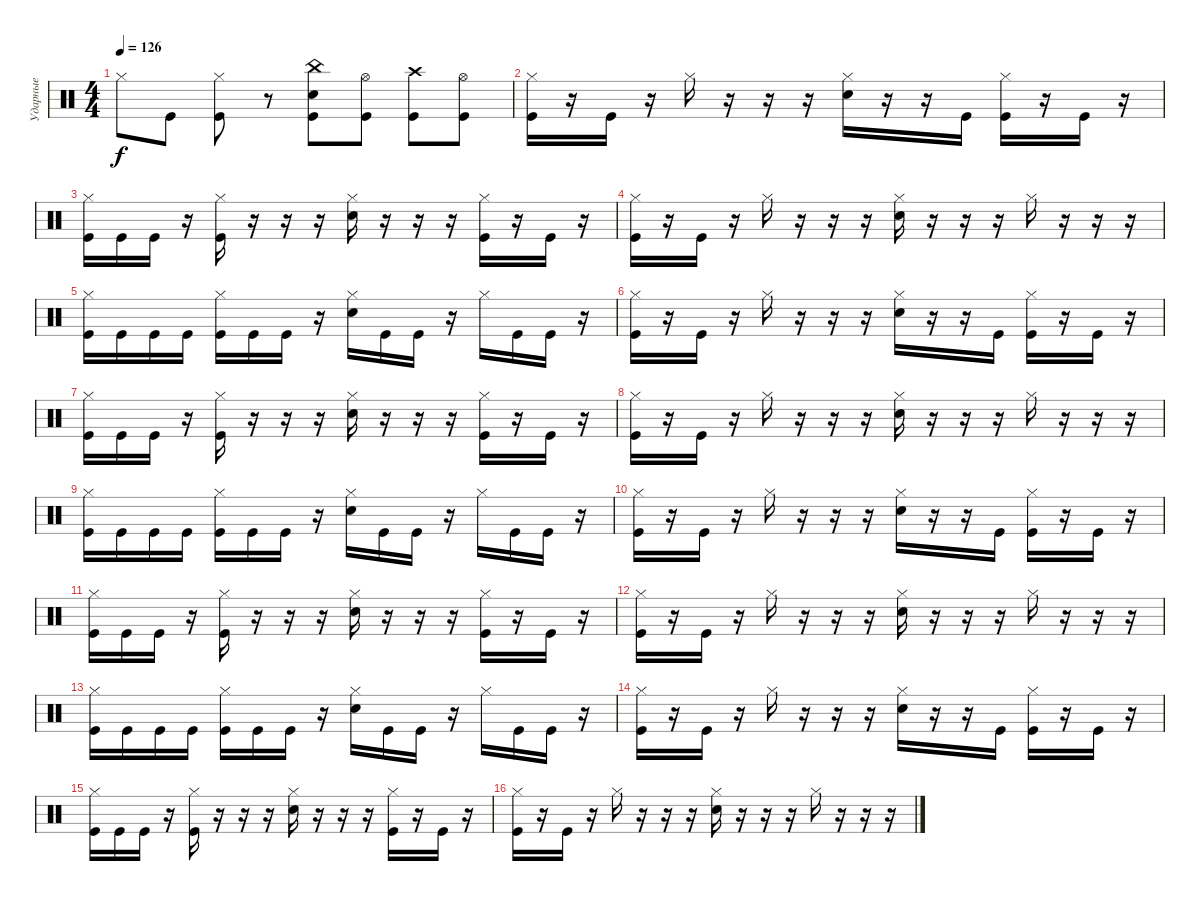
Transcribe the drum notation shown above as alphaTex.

\track ("Ударные" "Ударные") {instrument percussion}
\staff {score}
\articulation defaults
\ts (4 4)
\tempo 126
\clef neutral
\ks c "Hi-Hat (closed)".8{dy f} "Kick (hit)".8
("Hi-Hat (closed)" "Kick (hit)").8 r.8 ("China (hit)" "Electric Snare (hit)" "Kick (hit)").8 ("Hi-Hat (open)" "Kick (hit)").8 ("Crash high (hit)" "Kick (hit)").8 ("Hi-Hat (open)" "Kick (hit)").8 |
("Hi-Hat (closed)" "Kick (hit)").16 r.16 "Kick (hit)".16 r.16 "Hi-Hat (closed)".16 r.16 r.16 r.16 ("Hi-Hat (closed)" "Electric Snare (hit)").16 r.16 r.16 "Kick (hit)".16 ("Hi-Hat (closed)" "Kick (hit)").16 r.16 "Kick (hit)".16 r.16 |
("Hi-Hat (closed)" "Kick (hit)").16 "Kick (hit)".16 "Kick (hit)".16 r.16 ("Hi-Hat (closed)" "Kick (hit)").16 r.16 r.16 r.16 ("Hi-Hat (closed)" "Electric Snare (hit)").16 r.16 r.16 r.16 ("Hi-Hat (closed)" "Kick (hit)").16 r.16 "Kick (hit)".16 r.16 |
("Hi-Hat (closed)" "Kick (hit)").16 r.16 "Kick (hit)".16 r.16 "Hi-Hat (closed)".16 r.16 r.16 r.16 ("Hi-Hat (closed)" "Electric Snare (hit)").16 r.16 r.16 r.16 "Hi-Hat (closed)".16 r.16 r.16 r.16 |
("Hi-Hat (closed)" "Kick (hit)").16 "Kick (hit)".16 "Kick (hit)".16 "Kick (hit)".16 ("Hi-Hat (closed)" "Kick (hit)").16 "Kick (hit)".16 "Kick (hit)".16 r.16 ("Hi-Hat (closed)" "Electric Snare (hit)").16 "Kick (hit)".16 "Kick (hit)".16 r.16 "Hi-Hat (closed)".16 "Kick (hit)".16 "Kick (hit)".16 r.16 |
("Hi-Hat (closed)" "Kick (hit)").16 r.16 "Kick (hit)".16 r.16 "Hi-Hat (closed)".16 r.16 r.16 r.16 ("Hi-Hat (closed)" "Electric Snare (hit)").16 r.16 r.16 "Kick (hit)".16 ("Hi-Hat (closed)" "Kick (hit)").16 r.16 "Kick (hit)".16 r.16 |
("Hi-Hat (closed)" "Kick (hit)").16 "Kick (hit)".16 "Kick (hit)".16 r.16 ("Hi-Hat (closed)" "Kick (hit)").16 r.16 r.16 r.16 ("Hi-Hat (closed)" "Electric Snare (hit)").16 r.16 r.16 r.16 ("Hi-Hat (closed)" "Kick (hit)").16 r.16 "Kick (hit)".16 r.16 |
("Hi-Hat (closed)" "Kick (hit)").16 r.16 "Kick (hit)".16 r.16 "Hi-Hat (closed)".16 r.16 r.16 r.16 ("Hi-Hat (closed)" "Electric Snare (hit)").16 r.16 r.16 r.16 "Hi-Hat (closed)".16 r.16 r.16 r.16 |
("Hi-Hat (closed)" "Kick (hit)").16 "Kick (hit)".16 "Kick (hit)".16 "Kick (hit)".16 ("Hi-Hat (closed)" "Kick (hit)").16 "Kick (hit)".16 "Kick (hit)".16 r.16 ("Hi-Hat (closed)" "Electric Snare (hit)").16 "Kick (hit)".16 "Kick (hit)".16 r.16 "Hi-Hat (closed)".16 "Kick (hit)".16 "Kick (hit)".16 r.16 |
("Hi-Hat (closed)" "Kick (hit)").16 r.16 "Kick (hit)".16 r.16 "Hi-Hat (closed)".16 r.16 r.16 r.16 ("Hi-Hat (closed)" "Electric Snare (hit)").16 r.16 r.16 "Kick (hit)".16 ("Hi-Hat (closed)" "Kick (hit)").16 r.16 "Kick (hit)".16 r.16 |
("Hi-Hat (closed)" "Kick (hit)").16 "Kick (hit)".16 "Kick (hit)".16 r.16 ("Hi-Hat (closed)" "Kick (hit)").16 r.16 r.16 r.16 ("Hi-Hat (closed)" "Electric Snare (hit)").16 r.16 r.16 r.16 ("Hi-Hat (closed)" "Kick (hit)").16 r.16 "Kick (hit)".16 r.16 |
("Hi-Hat (closed)" "Kick (hit)").16 r.16 "Kick (hit)".16 r.16 "Hi-Hat (closed)".16 r.16 r.16 r.16 ("Hi-Hat (closed)" "Electric Snare (hit)").16 r.16 r.16 r.16 "Hi-Hat (closed)".16 r.16 r.16 r.16 |
("Hi-Hat (closed)" "Kick (hit)").16 "Kick (hit)".16 "Kick (hit)".16 "Kick (hit)".16 ("Hi-Hat (closed)" "Kick (hit)").16 "Kick (hit)".16 "Kick (hit)".16 r.16 ("Hi-Hat (closed)" "Electric Snare (hit)").16 "Kick (hit)".16 "Kick (hit)".16 r.16 "Hi-Hat (closed)".16 "Kick (hit)".16 "Kick (hit)".16 r.16 |
("Hi-Hat (closed)" "Kick (hit)").16 r.16 "Kick (hit)".16 r.16 "Hi-Hat (closed)".16 r.16 r.16 r.16 ("Hi-Hat (closed)" "Electric Snare (hit)").16 r.16 r.16 "Kick (hit)".16 ("Hi-Hat (closed)" "Kick (hit)").16 r.16 "Kick (hit)".16 r.16 |
("Hi-Hat (closed)" "Kick (hit)").16 "Kick (hit)".16 "Kick (hit)".16 r.16 ("Hi-Hat (closed)" "Kick (hit)").16 r.16 r.16 r.16 ("Hi-Hat (closed)" "Electric Snare (hit)").16 r.16 r.16 r.16 ("Hi-Hat (closed)" "Kick (hit)").16 r.16 "Kick (hit)".16 r.16 |
("Hi-Hat (closed)" "Kick (hit)").16 r.16 "Kick (hit)".16 r.16 "Hi-Hat (closed)".16 r.16 r.16 r.16 ("Hi-Hat (closed)" "Electric Snare (hit)").16 r.16 r.16 r.16 "Hi-Hat (closed)".16 r.16 r.16 r.16
